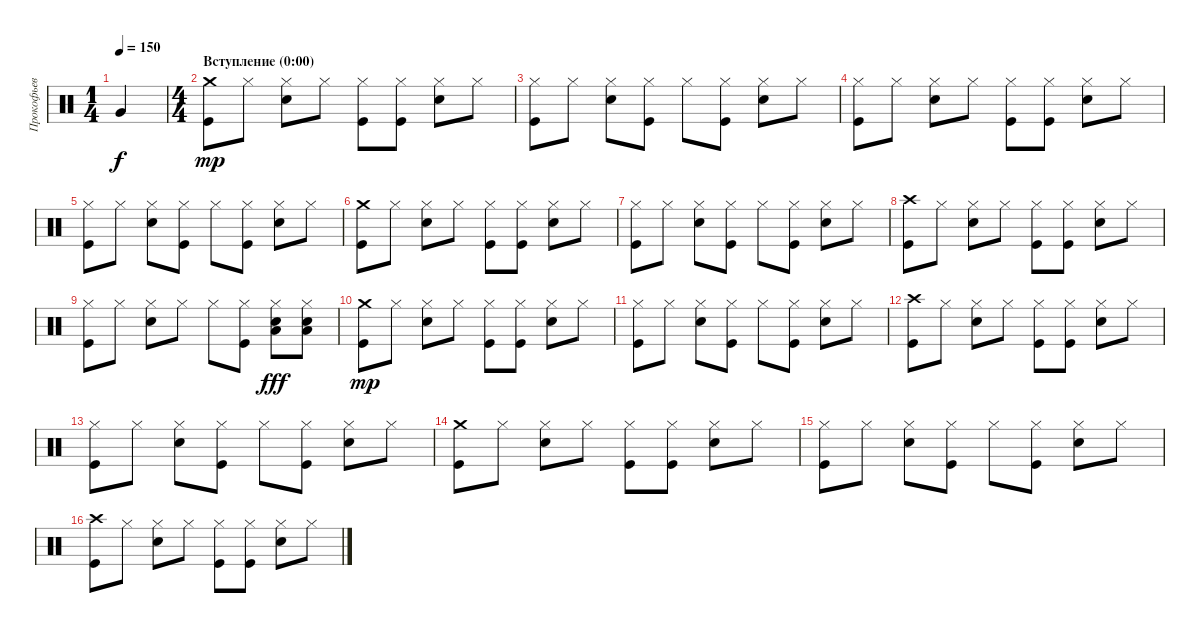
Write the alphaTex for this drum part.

\track ("Прокофьев (Барабаны)" "Прокофьев ") {instrument percussion}
\staff {score}
\articulation defaults
\ts (1 4)
\tempo 150
\clef neutral
\ks c "Very Low Tom (hit)".4{dy f}
|
\ts (4 4)
\section ("" "Вступление (0:00)")
("Crash medium (hit)" "Kick (hit)").8{dy mp} "Hi-Hat (closed)".8 ("Hi-Hat (closed)" "Electric Snare (hit)").8 "Hi-Hat (closed)".8 ("Hi-Hat (closed)" "Kick (hit)").8 ("Hi-Hat (closed)" "Kick (hit)").8 ("Hi-Hat (closed)" "Electric Snare (hit)").8 "Hi-Hat (closed)".8 |
("Hi-Hat (closed)" "Kick (hit)").8 "Hi-Hat (closed)".8 ("Hi-Hat (closed)" "Electric Snare (hit)").8 ("Hi-Hat (closed)" "Kick (hit)").8 "Hi-Hat (closed)".8 ("Hi-Hat (closed)" "Kick (hit)").8 ("Hi-Hat (closed)" "Electric Snare (hit)").8 "Hi-Hat (closed)".8 |
("Hi-Hat (closed)" "Kick (hit)").8 "Hi-Hat (closed)".8 ("Hi-Hat (closed)" "Electric Snare (hit)").8 "Hi-Hat (closed)".8 ("Hi-Hat (closed)" "Kick (hit)").8 ("Hi-Hat (closed)" "Kick (hit)").8 ("Hi-Hat (closed)" "Electric Snare (hit)").8 "Hi-Hat (closed)".8 |
("Hi-Hat (closed)" "Kick (hit)").8 "Hi-Hat (closed)".8 ("Hi-Hat (closed)" "Electric Snare (hit)").8 ("Hi-Hat (closed)" "Kick (hit)").8 "Hi-Hat (closed)".8 ("Hi-Hat (closed)" "Kick (hit)").8 ("Hi-Hat (closed)" "Electric Snare (hit)").8 "Hi-Hat (closed)".8 |
("Crash medium (hit)" "Kick (hit)").8 "Hi-Hat (closed)".8 ("Hi-Hat (closed)" "Electric Snare (hit)").8 "Hi-Hat (closed)".8 ("Hi-Hat (closed)" "Kick (hit)").8 ("Hi-Hat (closed)" "Kick (hit)").8 ("Hi-Hat (closed)" "Electric Snare (hit)").8 "Hi-Hat (closed)".8 |
("Hi-Hat (closed)" "Kick (hit)").8 "Hi-Hat (closed)".8 ("Hi-Hat (closed)" "Electric Snare (hit)").8 ("Hi-Hat (closed)" "Kick (hit)").8 "Hi-Hat (closed)".8 ("Hi-Hat (closed)" "Kick (hit)").8 ("Hi-Hat (closed)" "Electric Snare (hit)").8 "Hi-Hat (closed)".8 |
("Crash high (hit)" "Kick (hit)").8 "Hi-Hat (closed)".8 ("Hi-Hat (closed)" "Electric Snare (hit)").8 "Hi-Hat (closed)".8 ("Hi-Hat (closed)" "Kick (hit)").8 ("Hi-Hat (closed)" "Kick (hit)").8 ("Hi-Hat (closed)" "Electric Snare (hit)").8 "Hi-Hat (closed)".8 |
("Hi-Hat (closed)" "Kick (hit)").8 "Hi-Hat (closed)".8 ("Hi-Hat (closed)" "Electric Snare (hit)").8 "Hi-Hat (closed)".8 "Hi-Hat (closed)".8 ("Hi-Hat (closed)" "Kick (hit)").8 ("Hi-Hat (closed)" "Electric Snare (hit)" "Low Floor Tom (hit)").8{dy fff} ("Hi-Hat (closed)" "Electric Snare (hit)" "Low Floor Tom (hit)").8 |
("Crash medium (hit)" "Kick (hit)").8{dy mp} "Hi-Hat (closed)".8 ("Hi-Hat (closed)" "Electric Snare (hit)").8 "Hi-Hat (closed)".8 ("Hi-Hat (closed)" "Kick (hit)").8 ("Hi-Hat (closed)" "Kick (hit)").8 ("Hi-Hat (closed)" "Electric Snare (hit)").8 "Hi-Hat (closed)".8 |
("Hi-Hat (closed)" "Kick (hit)").8 "Hi-Hat (closed)".8 ("Hi-Hat (closed)" "Electric Snare (hit)").8 ("Hi-Hat (closed)" "Kick (hit)").8 "Hi-Hat (closed)".8 ("Hi-Hat (closed)" "Kick (hit)").8 ("Hi-Hat (closed)" "Electric Snare (hit)").8 "Hi-Hat (closed)".8 |
("Crash high (hit)" "Kick (hit)").8 "Hi-Hat (closed)".8 ("Hi-Hat (closed)" "Electric Snare (hit)").8 "Hi-Hat (closed)".8 ("Hi-Hat (closed)" "Kick (hit)").8 ("Hi-Hat (closed)" "Kick (hit)").8 ("Hi-Hat (closed)" "Electric Snare (hit)").8 "Hi-Hat (closed)".8 |
("Hi-Hat (closed)" "Kick (hit)").8 "Hi-Hat (closed)".8 ("Hi-Hat (closed)" "Electric Snare (hit)").8 ("Hi-Hat (closed)" "Kick (hit)").8 "Hi-Hat (closed)".8 ("Hi-Hat (closed)" "Kick (hit)").8 ("Hi-Hat (closed)" "Electric Snare (hit)").8 "Hi-Hat (closed)".8 |
("Crash medium (hit)" "Kick (hit)").8 "Hi-Hat (closed)".8 ("Hi-Hat (closed)" "Electric Snare (hit)").8 "Hi-Hat (closed)".8 ("Hi-Hat (closed)" "Kick (hit)").8 ("Hi-Hat (closed)" "Kick (hit)").8 ("Hi-Hat (closed)" "Electric Snare (hit)").8 "Hi-Hat (closed)".8 |
("Hi-Hat (closed)" "Kick (hit)").8 "Hi-Hat (closed)".8 ("Hi-Hat (closed)" "Electric Snare (hit)").8 ("Hi-Hat (closed)" "Kick (hit)").8 "Hi-Hat (closed)".8 ("Hi-Hat (closed)" "Kick (hit)").8 ("Hi-Hat (closed)" "Electric Snare (hit)").8 "Hi-Hat (closed)".8 |
("Crash high (hit)" "Kick (hit)").8 "Hi-Hat (closed)".8 ("Hi-Hat (closed)" "Electric Snare (hit)").8 "Hi-Hat (closed)".8 ("Hi-Hat (closed)" "Kick (hit)").8 ("Hi-Hat (closed)" "Kick (hit)").8 ("Hi-Hat (closed)" "Electric Snare (hit)").8 "Hi-Hat (closed)".8
